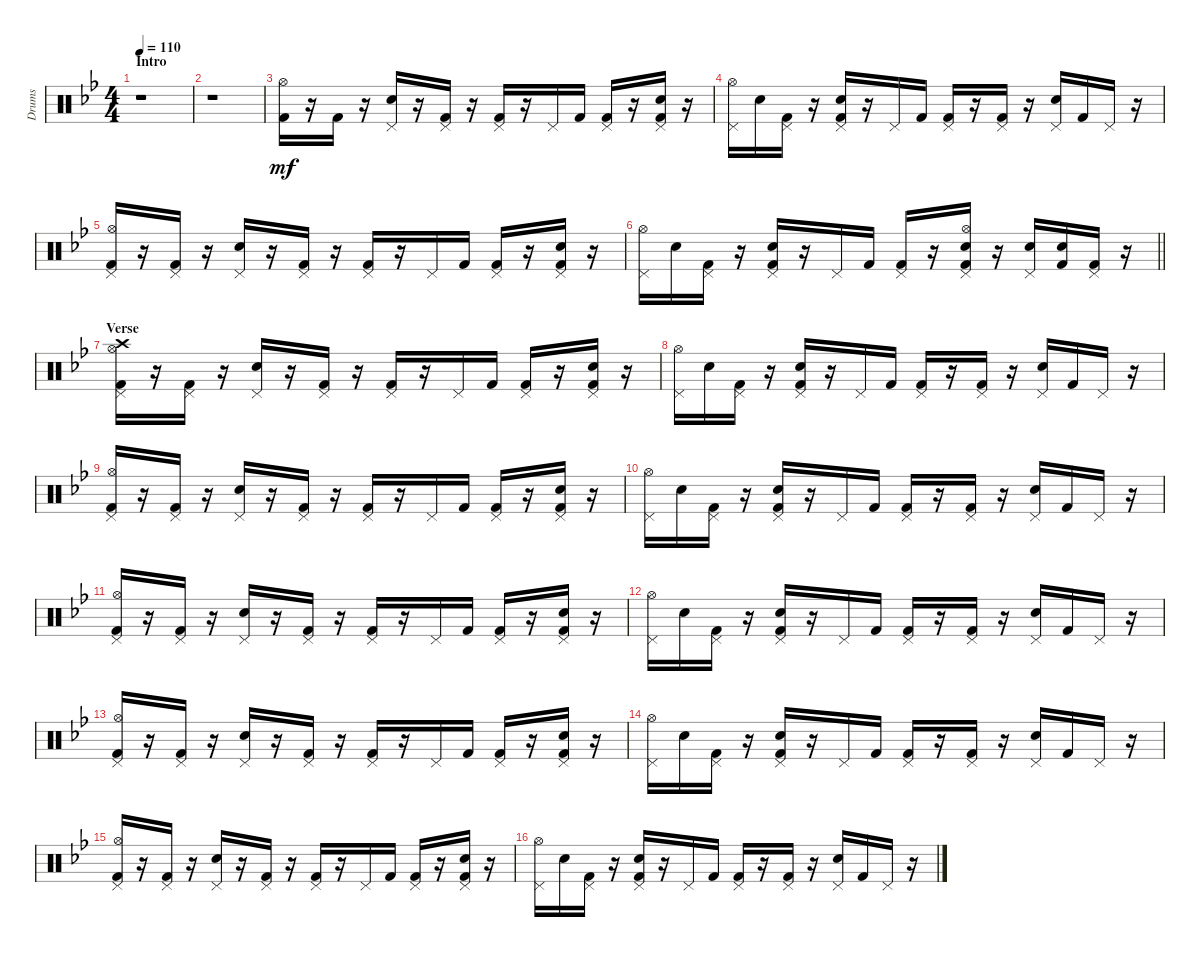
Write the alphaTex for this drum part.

\track ("Drums" "Drums") {instrument percussion}
\staff {score}
\articulation defaults
\ts (4 4)
\section ("" "Intro")
\tempo 110
\clef neutral
\ks gminor
r.1{dy mf} |
r.1 |
("Kick (hit) 2" "Hi-Hat (open)").16 r.16 "Kick (hit) 2".16 r.16 ("Snare (hit) 2" "Pedal Hi-Hat (hit)").16 r.16 ("Kick (hit) 2" "Pedal Hi-Hat (hit)").16 r.16 ("Kick (hit) 2" "Pedal Hi-Hat (hit)").16 r.16 "Pedal Hi-Hat (hit)".16 "Kick (hit) 2".16 ("Kick (hit) 2" "Pedal Hi-Hat (hit)").16 r.16 ("Kick (hit) 2" "Snare (hit) 2" "Pedal Hi-Hat (hit)").16 r.16 |
("Pedal Hi-Hat (hit)" "Hi-Hat (open)").16 "Snare (hit) 2".16 ("Kick (hit) 2" "Pedal Hi-Hat (hit)").16 r.16 ("Kick (hit) 2" "Snare (hit) 2" "Pedal Hi-Hat (hit)").16 r.16 "Pedal Hi-Hat (hit)".16 "Kick (hit) 2".16 ("Kick (hit) 2" "Pedal Hi-Hat (hit)").16 r.16 ("Kick (hit) 2" "Pedal Hi-Hat (hit)").16 r.16 ("Snare (hit) 2" "Pedal Hi-Hat (hit)").16 "Kick (hit) 2".16 "Pedal Hi-Hat (hit)".16 r.16 |
("Kick (hit) 2" "Pedal Hi-Hat (hit)" "Hi-Hat (open)").16 r.16 ("Kick (hit) 2" "Pedal Hi-Hat (hit)").16 r.16 ("Snare (hit) 2" "Pedal Hi-Hat (hit)").16 r.16 ("Kick (hit) 2" "Pedal Hi-Hat (hit)").16 r.16 ("Kick (hit) 2" "Pedal Hi-Hat (hit)").16 r.16 "Pedal Hi-Hat (hit)".16 "Kick (hit) 2".16 ("Kick (hit) 2" "Pedal Hi-Hat (hit)").16 r.16 ("Kick (hit) 2" "Snare (hit) 2" "Pedal Hi-Hat (hit)").16 r.16 |
\barLineRight lightlight
("Pedal Hi-Hat (hit)" "Hi-Hat (open)").16 "Snare (hit) 2".16 ("Kick (hit) 2" "Pedal Hi-Hat (hit)").16 r.16 ("Kick (hit) 2" "Snare (hit) 2" "Pedal Hi-Hat (hit)").16 r.16 "Pedal Hi-Hat (hit)".16 "Kick (hit) 2".16 ("Kick (hit) 2" "Pedal Hi-Hat (hit)").16 r.16 ("Kick (hit) 2" "Snare (hit) 2" "Pedal Hi-Hat (hit)" "Hi-Hat (open)").16 r.16 ("Snare (hit) 2" "Pedal Hi-Hat (hit)").16 ("Kick (hit) 2" "Snare (hit) 2").16 ("Kick (hit) 2" "Pedal Hi-Hat (hit)").16 r.16 |
\section ("" "Verse")
("Kick (hit) 2" "Pedal Hi-Hat (hit)" "Hi-Hat (open)" "Crash high (hit)").16 r.16 ("Kick (hit) 2" "Pedal Hi-Hat (hit)").16 r.16 ("Snare (hit) 2" "Pedal Hi-Hat (hit)").16 r.16 ("Kick (hit) 2" "Pedal Hi-Hat (hit)").16 r.16 ("Kick (hit) 2" "Pedal Hi-Hat (hit)").16 r.16 "Pedal Hi-Hat (hit)".16 "Kick (hit) 2".16 ("Kick (hit) 2" "Pedal Hi-Hat (hit)").16 r.16 ("Kick (hit) 2" "Snare (hit) 2" "Pedal Hi-Hat (hit)").16 r.16 |
("Pedal Hi-Hat (hit)" "Hi-Hat (open)").16 "Snare (hit) 2".16 ("Kick (hit) 2" "Pedal Hi-Hat (hit)").16 r.16 ("Kick (hit) 2" "Snare (hit) 2" "Pedal Hi-Hat (hit)").16 r.16 "Pedal Hi-Hat (hit)".16 "Kick (hit) 2".16 ("Kick (hit) 2" "Pedal Hi-Hat (hit)").16 r.16 ("Kick (hit) 2" "Pedal Hi-Hat (hit)").16 r.16 ("Snare (hit) 2" "Pedal Hi-Hat (hit)").16 "Kick (hit) 2".16 "Pedal Hi-Hat (hit)".16 r.16 |
("Kick (hit) 2" "Pedal Hi-Hat (hit)" "Hi-Hat (open)").16 r.16 ("Kick (hit) 2" "Pedal Hi-Hat (hit)").16 r.16 ("Snare (hit) 2" "Pedal Hi-Hat (hit)").16 r.16 ("Kick (hit) 2" "Pedal Hi-Hat (hit)").16 r.16 ("Kick (hit) 2" "Pedal Hi-Hat (hit)").16 r.16 "Pedal Hi-Hat (hit)".16 "Kick (hit) 2".16 ("Kick (hit) 2" "Pedal Hi-Hat (hit)").16 r.16 ("Kick (hit) 2" "Snare (hit) 2" "Pedal Hi-Hat (hit)").16 r.16 |
("Pedal Hi-Hat (hit)" "Hi-Hat (open)").16 "Snare (hit) 2".16 ("Kick (hit) 2" "Pedal Hi-Hat (hit)").16 r.16 ("Kick (hit) 2" "Snare (hit) 2" "Pedal Hi-Hat (hit)").16 r.16 "Pedal Hi-Hat (hit)".16 "Kick (hit) 2".16 ("Kick (hit) 2" "Pedal Hi-Hat (hit)").16 r.16 ("Kick (hit) 2" "Pedal Hi-Hat (hit)").16 r.16 ("Snare (hit) 2" "Pedal Hi-Hat (hit)").16 "Kick (hit) 2".16 "Pedal Hi-Hat (hit)".16 r.16 |
("Kick (hit) 2" "Pedal Hi-Hat (hit)" "Hi-Hat (open)").16 r.16 ("Kick (hit) 2" "Pedal Hi-Hat (hit)").16 r.16 ("Snare (hit) 2" "Pedal Hi-Hat (hit)").16 r.16 ("Kick (hit) 2" "Pedal Hi-Hat (hit)").16 r.16 ("Kick (hit) 2" "Pedal Hi-Hat (hit)").16 r.16 "Pedal Hi-Hat (hit)".16 "Kick (hit) 2".16 ("Kick (hit) 2" "Pedal Hi-Hat (hit)").16 r.16 ("Kick (hit) 2" "Snare (hit) 2" "Pedal Hi-Hat (hit)").16 r.16 |
("Pedal Hi-Hat (hit)" "Hi-Hat (open)").16 "Snare (hit) 2".16 ("Kick (hit) 2" "Pedal Hi-Hat (hit)").16 r.16 ("Kick (hit) 2" "Snare (hit) 2" "Pedal Hi-Hat (hit)").16 r.16 "Pedal Hi-Hat (hit)".16 "Kick (hit) 2".16 ("Kick (hit) 2" "Pedal Hi-Hat (hit)").16 r.16 ("Kick (hit) 2" "Pedal Hi-Hat (hit)").16 r.16 ("Snare (hit) 2" "Pedal Hi-Hat (hit)").16 "Kick (hit) 2".16 "Pedal Hi-Hat (hit)".16 r.16 |
("Kick (hit) 2" "Pedal Hi-Hat (hit)" "Hi-Hat (open)").16 r.16 ("Kick (hit) 2" "Pedal Hi-Hat (hit)").16 r.16 ("Snare (hit) 2" "Pedal Hi-Hat (hit)").16 r.16 ("Kick (hit) 2" "Pedal Hi-Hat (hit)").16 r.16 ("Kick (hit) 2" "Pedal Hi-Hat (hit)").16 r.16 "Pedal Hi-Hat (hit)".16 "Kick (hit) 2".16 ("Kick (hit) 2" "Pedal Hi-Hat (hit)").16 r.16 ("Kick (hit) 2" "Snare (hit) 2" "Pedal Hi-Hat (hit)").16 r.16 |
("Pedal Hi-Hat (hit)" "Hi-Hat (open)").16 "Snare (hit) 2".16 ("Kick (hit) 2" "Pedal Hi-Hat (hit)").16 r.16 ("Kick (hit) 2" "Snare (hit) 2" "Pedal Hi-Hat (hit)").16 r.16 "Pedal Hi-Hat (hit)".16 "Kick (hit) 2".16 ("Kick (hit) 2" "Pedal Hi-Hat (hit)").16 r.16 ("Kick (hit) 2" "Pedal Hi-Hat (hit)").16 r.16 ("Snare (hit) 2" "Pedal Hi-Hat (hit)").16 "Kick (hit) 2".16 "Pedal Hi-Hat (hit)".16 r.16 |
("Kick (hit) 2" "Pedal Hi-Hat (hit)" "Hi-Hat (open)").16 r.16 ("Kick (hit) 2" "Pedal Hi-Hat (hit)").16 r.16 ("Snare (hit) 2" "Pedal Hi-Hat (hit)").16 r.16 ("Kick (hit) 2" "Pedal Hi-Hat (hit)").16 r.16 ("Kick (hit) 2" "Pedal Hi-Hat (hit)").16 r.16 "Pedal Hi-Hat (hit)".16 "Kick (hit) 2".16 ("Kick (hit) 2" "Pedal Hi-Hat (hit)").16 r.16 ("Kick (hit) 2" "Snare (hit) 2" "Pedal Hi-Hat (hit)").16 r.16 |
("Pedal Hi-Hat (hit)" "Hi-Hat (open)").16 "Snare (hit) 2".16 ("Kick (hit) 2" "Pedal Hi-Hat (hit)").16 r.16 ("Kick (hit) 2" "Snare (hit) 2" "Pedal Hi-Hat (hit)").16 r.16 "Pedal Hi-Hat (hit)".16 "Kick (hit) 2".16 ("Kick (hit) 2" "Pedal Hi-Hat (hit)").16 r.16 ("Kick (hit) 2" "Pedal Hi-Hat (hit)").16 r.16 ("Snare (hit) 2" "Pedal Hi-Hat (hit)").16 "Kick (hit) 2".16 "Pedal Hi-Hat (hit)".16 r.16
